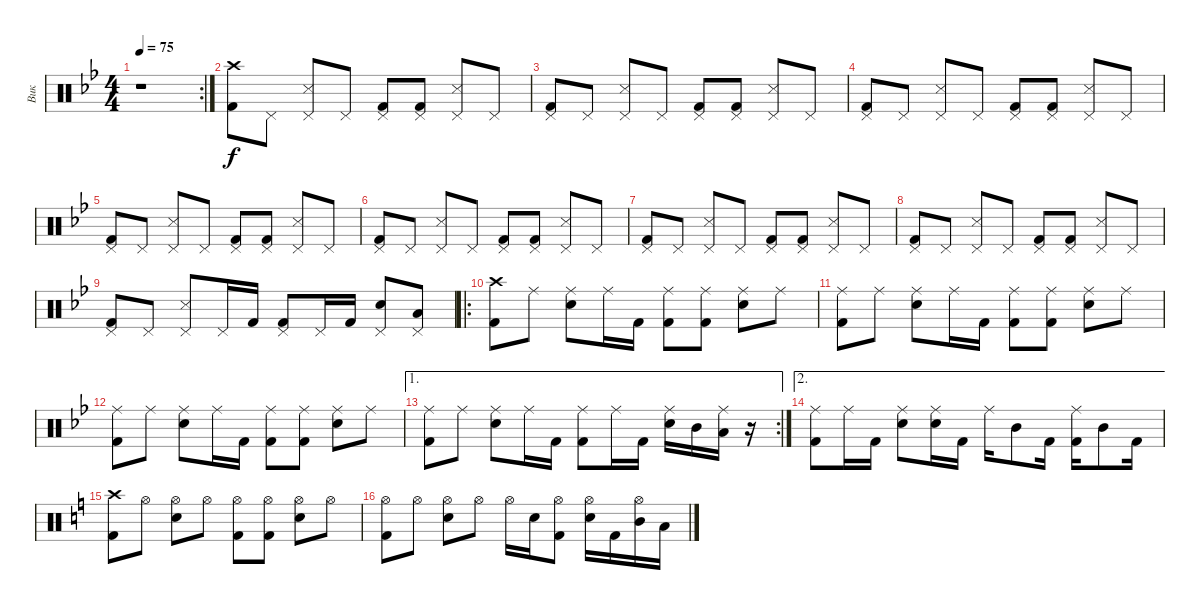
\track ("Вик" "Вик") {instrument percussion}
\staff {score}
\articulation defaults
\rc 2
\ts (4 4)
\tempo 75
\clef neutral
\ks gminor
r.1{dy f} |
("Crash high (hit)" "Kick (hit) 2").8 "Pedal Hi-Hat (hit)".8 ("Pedal Hi-Hat (hit)" "Snare (side stick) 3").8 "Pedal Hi-Hat (hit)".8 ("Pedal Hi-Hat (hit)" "Kick (hit) 2").8 ("Pedal Hi-Hat (hit)" "Kick (hit) 2").8 ("Pedal Hi-Hat (hit)" "Snare (side stick) 3").8 "Pedal Hi-Hat (hit)".8 |
("Pedal Hi-Hat (hit)" "Kick (hit) 2").8 "Pedal Hi-Hat (hit)".8 ("Pedal Hi-Hat (hit)" "Snare (side stick) 3").8 "Pedal Hi-Hat (hit)".8 ("Pedal Hi-Hat (hit)" "Kick (hit) 2").8 ("Pedal Hi-Hat (hit)" "Kick (hit) 2").8 ("Pedal Hi-Hat (hit)" "Snare (side stick) 3").8 "Pedal Hi-Hat (hit)".8 |
("Pedal Hi-Hat (hit)" "Kick (hit) 2").8 "Pedal Hi-Hat (hit)".8 ("Pedal Hi-Hat (hit)" "Snare (side stick) 3").8 "Pedal Hi-Hat (hit)".8 ("Pedal Hi-Hat (hit)" "Kick (hit) 2").8 ("Pedal Hi-Hat (hit)" "Kick (hit) 2").8 ("Pedal Hi-Hat (hit)" "Snare (side stick) 3").8 "Pedal Hi-Hat (hit)".8 |
("Pedal Hi-Hat (hit)" "Kick (hit) 2").8 "Pedal Hi-Hat (hit)".8 ("Pedal Hi-Hat (hit)" "Snare (side stick) 3").8 "Pedal Hi-Hat (hit)".8 ("Pedal Hi-Hat (hit)" "Kick (hit) 2").8 ("Pedal Hi-Hat (hit)" "Kick (hit) 2").8 ("Pedal Hi-Hat (hit)" "Snare (side stick) 3").8 "Pedal Hi-Hat (hit)".8 |
("Pedal Hi-Hat (hit)" "Kick (hit) 2").8 "Pedal Hi-Hat (hit)".8 ("Pedal Hi-Hat (hit)" "Snare (side stick) 3").8 "Pedal Hi-Hat (hit)".8 ("Pedal Hi-Hat (hit)" "Kick (hit) 2").8 ("Pedal Hi-Hat (hit)" "Kick (hit) 2").8 ("Pedal Hi-Hat (hit)" "Snare (side stick) 3").8 "Pedal Hi-Hat (hit)".8 |
("Pedal Hi-Hat (hit)" "Kick (hit) 2").8 "Pedal Hi-Hat (hit)".8 ("Pedal Hi-Hat (hit)" "Snare (side stick) 3").8 "Pedal Hi-Hat (hit)".8 ("Pedal Hi-Hat (hit)" "Kick (hit) 2").8 ("Pedal Hi-Hat (hit)" "Kick (hit) 2").8 ("Pedal Hi-Hat (hit)" "Snare (side stick) 3").8 "Pedal Hi-Hat (hit)".8 |
("Pedal Hi-Hat (hit)" "Kick (hit) 2").8 "Pedal Hi-Hat (hit)".8 ("Pedal Hi-Hat (hit)" "Snare (side stick) 3").8 "Pedal Hi-Hat (hit)".8 ("Pedal Hi-Hat (hit)" "Kick (hit) 2").8 ("Pedal Hi-Hat (hit)" "Kick (hit) 2").8 ("Pedal Hi-Hat (hit)" "Snare (side stick) 3").8 "Pedal Hi-Hat (hit)".8 |
("Pedal Hi-Hat (hit)" "Kick (hit) 2").8 "Pedal Hi-Hat (hit)".8 ("Pedal Hi-Hat (hit)" "Snare (side stick) 3").8 "Pedal Hi-Hat (hit)".16 "Kick (hit) 2".16 ("Pedal Hi-Hat (hit)" "Kick (hit) 2").8 "Pedal Hi-Hat (hit)".16 "Kick (hit) 2".16 ("Pedal Hi-Hat (hit)" "Electric Snare (hit)").8 ("Pedal Hi-Hat (hit)" "Low Tom (hit)").8 |
\ro
("Crash high (hit)" "Kick (hit) 2").8 "Ride (middle)".8 ("Ride (middle)" "Electric Snare (hit)").8 "Ride (middle)".16 "Kick (hit) 2".16 ("Ride (middle)" "Kick (hit) 2").8 ("Ride (middle)" "Kick (hit) 2").8 ("Ride (middle)" "Electric Snare (hit)").8 "Ride (middle)".8 |
("Ride (middle)" "Kick (hit) 2").8 "Ride (middle)".8 ("Ride (middle)" "Electric Snare (hit)").8 "Ride (middle)".16 "Kick (hit) 2".16 ("Ride (middle)" "Kick (hit) 2").8 ("Ride (middle)" "Kick (hit) 2").8 ("Ride (middle)" "Electric Snare (hit)").8 "Ride (middle)".8 |
("Ride (middle)" "Kick (hit) 2").8 "Ride (middle)".8 ("Ride (middle)" "Electric Snare (hit)").8 "Ride (middle)".16 "Kick (hit) 2".16 ("Ride (middle)" "Kick (hit) 2").8 ("Ride (middle)" "Kick (hit) 2").8 ("Ride (middle)" "Electric Snare (hit)").8 "Ride (middle)".8 |
\ae 1
\rc 2
("Ride (middle)" "Kick (hit) 2").8 "Ride (middle)".8 ("Ride (middle)" "Electric Snare (hit)").8 "Ride (middle)".16 "Kick (hit) 2".16 ("Ride (middle)" "Kick (hit) 2").8 "Ride (middle)".16 "Kick (hit) 2".16 ("Ride (middle)" "Electric Snare (hit)").16 "Mid Tom (hit)".16 ("Ride (middle)" "Low Tom (hit)").16 r.16 |
\ae 2
("Ride (middle)" "Kick (hit) 2").8 "Ride (middle)".16 "Kick (hit) 2".16 ("Ride (middle)" "Electric Snare (hit)").8 ("Ride (middle)" "Electric Snare (hit)").16 "Kick (hit) 2".16 "Ride (middle)".16 "Mid Tom (hit)".8 "Kick (hit) 2".16 ("Ride (middle)" "Kick (hit) 2").16 "Mid Tom (hit)".8 "Kick (hit) 2".16 |
\ks aminor
("Crash high (hit)" "Kick (hit) 2").8 "Hi-Hat (open)".8 ("Hi-Hat (open)" "Electric Snare (hit)").8 "Hi-Hat (open)".8 ("Hi-Hat (open)" "Kick (hit) 2").8 ("Hi-Hat (open)" "Kick (hit) 2").8 ("Hi-Hat (open)" "Electric Snare (hit)").8 "Hi-Hat (open)".8 |
("Hi-Hat (open)" "Kick (hit) 2").8 "Hi-Hat (open)".8 ("Hi-Hat (open)" "Electric Snare (hit)").8 "Hi-Hat (open)".8 "Hi-Hat (open)".16 "Electric Snare (hit)".16 ("Hi-Hat (open)" "Kick (hit) 2").8 ("Hi-Hat (open)" "Electric Snare (hit)").16 "Kick (hit) 2".16 ("Hi-Hat (open)" "Mid Tom (hit)").16 "Low Tom (hit)".16
